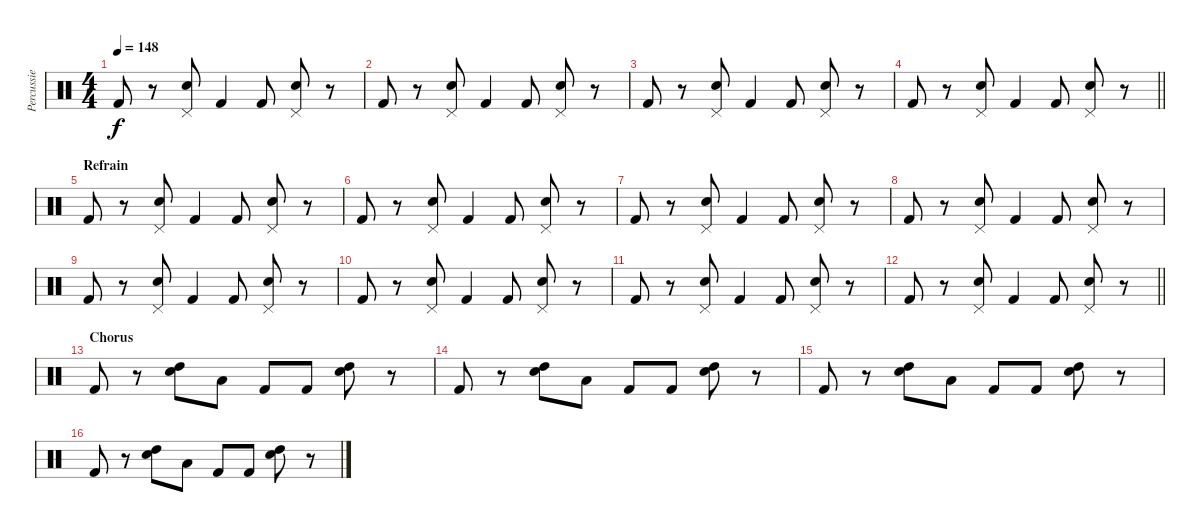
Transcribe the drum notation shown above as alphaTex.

\track ("Percussie" "Percussie") {instrument percussion}
\staff {score}
\articulation defaults
\ts (4 4)
\tempo 148
\clef neutral
\ks c "Kick (hit) 2".8{dy f}
r.8 ("Pedal Hi-Hat (hit)" "Electric Snare (hit)").8 "Kick (hit) 2".4 "Kick (hit) 2".8 ("Pedal Hi-Hat (hit)" "Electric Snare (hit)").8 r.8 |
"Kick (hit) 2".8 r.8 ("Pedal Hi-Hat (hit)" "Electric Snare (hit)").8 "Kick (hit) 2".4 "Kick (hit) 2".8 ("Pedal Hi-Hat (hit)" "Electric Snare (hit)").8 r.8 |
"Kick (hit) 2".8 r.8 ("Pedal Hi-Hat (hit)" "Electric Snare (hit)").8 "Kick (hit) 2".4 "Kick (hit) 2".8 ("Pedal Hi-Hat (hit)" "Electric Snare (hit)").8 r.8 |
\barLineRight lightlight "Kick (hit) 2".8
r.8 ("Pedal Hi-Hat (hit)" "Electric Snare (hit)").8 "Kick (hit) 2".4 "Kick (hit) 2".8 ("Pedal Hi-Hat (hit)" "Electric Snare (hit)").8 r.8 |
\section ("" "Refrain")
"Kick (hit) 2".8 r.8 ("Pedal Hi-Hat (hit)" "Electric Snare (hit)").8 "Kick (hit) 2".4 "Kick (hit) 2".8 ("Pedal Hi-Hat (hit)" "Electric Snare (hit)").8 r.8 |
"Kick (hit) 2".8 r.8 ("Pedal Hi-Hat (hit)" "Electric Snare (hit)").8 "Kick (hit) 2".4 "Kick (hit) 2".8 ("Pedal Hi-Hat (hit)" "Electric Snare (hit)").8 r.8 |
"Kick (hit) 2".8 r.8 ("Pedal Hi-Hat (hit)" "Electric Snare (hit)").8 "Kick (hit) 2".4 "Kick (hit) 2".8 ("Pedal Hi-Hat (hit)" "Electric Snare (hit)").8 r.8 |
"Kick (hit) 2".8 r.8 ("Pedal Hi-Hat (hit)" "Electric Snare (hit)").8 "Kick (hit) 2".4 "Kick (hit) 2".8 ("Pedal Hi-Hat (hit)" "Electric Snare (hit)").8 r.8 |
"Kick (hit) 2".8 r.8 ("Pedal Hi-Hat (hit)" "Electric Snare (hit)").8 "Kick (hit) 2".4 "Kick (hit) 2".8 ("Pedal Hi-Hat (hit)" "Electric Snare (hit)").8 r.8 |
"Kick (hit) 2".8 r.8 ("Pedal Hi-Hat (hit)" "Electric Snare (hit)").8 "Kick (hit) 2".4 "Kick (hit) 2".8 ("Pedal Hi-Hat (hit)" "Electric Snare (hit)").8 r.8 |
"Kick (hit) 2".8 r.8 ("Pedal Hi-Hat (hit)" "Electric Snare (hit)").8 "Kick (hit) 2".4 "Kick (hit) 2".8 ("Pedal Hi-Hat (hit)" "Electric Snare (hit)").8 r.8 |
\barLineRight lightlight "Kick (hit) 2".8
r.8 ("Pedal Hi-Hat (hit)" "Electric Snare (hit)").8 "Kick (hit) 2".4 "Kick (hit) 2".8 ("Pedal Hi-Hat (hit)" "Electric Snare (hit)").8 r.8 |
\section ("" "Chorus")
"Kick (hit) 2".8 r.8 ("Electric Snare (hit)" "High Tom (hit)").8 "Low Tom (hit)".8 "Kick (hit) 2".8 "Kick (hit) 2".8 ("Electric Snare (hit)" "High Tom (hit)").8 r.8 |
"Kick (hit) 2".8 r.8 ("Electric Snare (hit)" "High Tom (hit)").8 "Low Tom (hit)".8 "Kick (hit) 2".8 "Kick (hit) 2".8 ("Electric Snare (hit)" "High Tom (hit)").8 r.8 |
"Kick (hit) 2".8 r.8 ("Electric Snare (hit)" "High Tom (hit)").8 "Low Tom (hit)".8 "Kick (hit) 2".8 "Kick (hit) 2".8 ("Electric Snare (hit)" "High Tom (hit)").8 r.8 |
"Kick (hit) 2".8 r.8 ("Electric Snare (hit)" "High Tom (hit)").8 "Low Tom (hit)".8 "Kick (hit) 2".8 "Kick (hit) 2".8 ("Electric Snare (hit)" "High Tom (hit)").8 r.8
